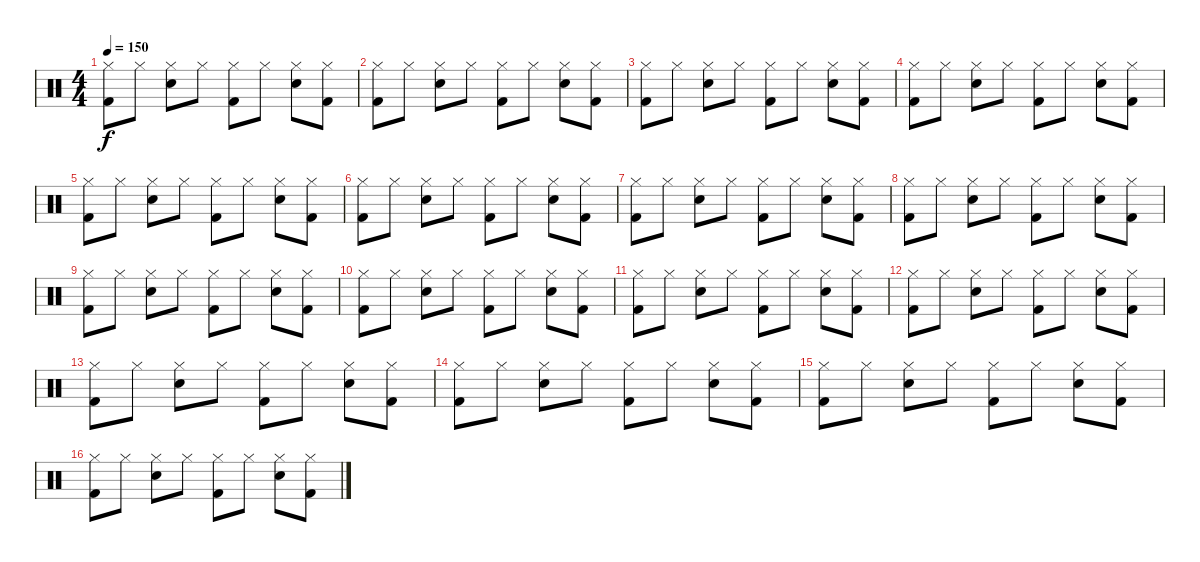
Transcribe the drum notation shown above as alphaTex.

\track "" {instrument percussion}
\staff {score}
\articulation defaults
\ts (4 4)
\tempo 150
\clef neutral
\ks c
("Hi-Hat (closed)" "Kick (hit) 2").8{dy f} "Hi-Hat (closed)".8 ("Hi-Hat (closed)" "Snare (hit) 2").8 "Hi-Hat (closed)".8 ("Hi-Hat (closed)" "Kick (hit) 2").8 "Hi-Hat (closed)".8 ("Hi-Hat (closed)" "Snare (hit) 2").8 ("Hi-Hat (closed)" "Kick (hit) 2").8 |
("Hi-Hat (closed)" "Kick (hit) 2").8 "Hi-Hat (closed)".8 ("Hi-Hat (closed)" "Snare (hit) 2").8 "Hi-Hat (closed)".8 ("Hi-Hat (closed)" "Kick (hit) 2").8 "Hi-Hat (closed)".8 ("Hi-Hat (closed)" "Snare (hit) 2").8 ("Hi-Hat (closed)" "Kick (hit) 2").8 |
("Hi-Hat (closed)" "Kick (hit) 2").8 "Hi-Hat (closed)".8 ("Hi-Hat (closed)" "Snare (hit) 2").8 "Hi-Hat (closed)".8 ("Hi-Hat (closed)" "Kick (hit) 2").8 "Hi-Hat (closed)".8 ("Hi-Hat (closed)" "Snare (hit) 2").8 ("Hi-Hat (closed)" "Kick (hit) 2").8 |
("Hi-Hat (closed)" "Kick (hit) 2").8 "Hi-Hat (closed)".8 ("Hi-Hat (closed)" "Snare (hit) 2").8 "Hi-Hat (closed)".8 ("Hi-Hat (closed)" "Kick (hit) 2").8 "Hi-Hat (closed)".8 ("Hi-Hat (closed)" "Snare (hit) 2").8 ("Hi-Hat (closed)" "Kick (hit) 2").8 |
("Hi-Hat (closed)" "Kick (hit) 2").8 "Hi-Hat (closed)".8 ("Hi-Hat (closed)" "Snare (hit) 2").8 "Hi-Hat (closed)".8 ("Hi-Hat (closed)" "Kick (hit) 2").8 "Hi-Hat (closed)".8 ("Hi-Hat (closed)" "Snare (hit) 2").8 ("Hi-Hat (closed)" "Kick (hit) 2").8 |
("Hi-Hat (closed)" "Kick (hit) 2").8 "Hi-Hat (closed)".8 ("Hi-Hat (closed)" "Snare (hit) 2").8 "Hi-Hat (closed)".8 ("Hi-Hat (closed)" "Kick (hit) 2").8 "Hi-Hat (closed)".8 ("Hi-Hat (closed)" "Snare (hit) 2").8 ("Hi-Hat (closed)" "Kick (hit) 2").8 |
("Hi-Hat (closed)" "Kick (hit) 2").8 "Hi-Hat (closed)".8 ("Hi-Hat (closed)" "Snare (hit) 2").8 "Hi-Hat (closed)".8 ("Hi-Hat (closed)" "Kick (hit) 2").8 "Hi-Hat (closed)".8 ("Hi-Hat (closed)" "Snare (hit) 2").8 ("Hi-Hat (closed)" "Kick (hit) 2").8 |
("Hi-Hat (closed)" "Kick (hit) 2").8 "Hi-Hat (closed)".8 ("Hi-Hat (closed)" "Snare (hit) 2").8 "Hi-Hat (closed)".8 ("Hi-Hat (closed)" "Kick (hit) 2").8 "Hi-Hat (closed)".8 ("Hi-Hat (closed)" "Snare (hit) 2").8 ("Hi-Hat (closed)" "Kick (hit) 2").8 |
("Hi-Hat (closed)" "Kick (hit) 2").8 "Hi-Hat (closed)".8 ("Hi-Hat (closed)" "Snare (hit) 2").8 "Hi-Hat (closed)".8 ("Hi-Hat (closed)" "Kick (hit) 2").8 "Hi-Hat (closed)".8 ("Hi-Hat (closed)" "Snare (hit) 2").8 ("Hi-Hat (closed)" "Kick (hit) 2").8 |
("Hi-Hat (closed)" "Kick (hit) 2").8 "Hi-Hat (closed)".8 ("Hi-Hat (closed)" "Snare (hit) 2").8 "Hi-Hat (closed)".8 ("Hi-Hat (closed)" "Kick (hit) 2").8 "Hi-Hat (closed)".8 ("Hi-Hat (closed)" "Snare (hit) 2").8 ("Hi-Hat (closed)" "Kick (hit) 2").8 |
("Hi-Hat (closed)" "Kick (hit) 2").8 "Hi-Hat (closed)".8 ("Hi-Hat (closed)" "Snare (hit) 2").8 "Hi-Hat (closed)".8 ("Hi-Hat (closed)" "Kick (hit) 2").8 "Hi-Hat (closed)".8 ("Hi-Hat (closed)" "Snare (hit) 2").8 ("Hi-Hat (closed)" "Kick (hit) 2").8 |
("Hi-Hat (closed)" "Kick (hit) 2").8 "Hi-Hat (closed)".8 ("Hi-Hat (closed)" "Snare (hit) 2").8 "Hi-Hat (closed)".8 ("Hi-Hat (closed)" "Kick (hit) 2").8 "Hi-Hat (closed)".8 ("Hi-Hat (closed)" "Snare (hit) 2").8 ("Hi-Hat (closed)" "Kick (hit) 2").8 |
("Hi-Hat (closed)" "Kick (hit) 2").8 "Hi-Hat (closed)".8 ("Hi-Hat (closed)" "Snare (hit) 2").8 "Hi-Hat (closed)".8 ("Hi-Hat (closed)" "Kick (hit) 2").8 "Hi-Hat (closed)".8 ("Hi-Hat (closed)" "Snare (hit) 2").8 ("Hi-Hat (closed)" "Kick (hit) 2").8 |
("Hi-Hat (closed)" "Kick (hit) 2").8 "Hi-Hat (closed)".8 ("Hi-Hat (closed)" "Snare (hit) 2").8 "Hi-Hat (closed)".8 ("Hi-Hat (closed)" "Kick (hit) 2").8 "Hi-Hat (closed)".8 ("Hi-Hat (closed)" "Snare (hit) 2").8 ("Hi-Hat (closed)" "Kick (hit) 2").8 |
("Hi-Hat (closed)" "Kick (hit) 2").8 "Hi-Hat (closed)".8 ("Hi-Hat (closed)" "Snare (hit) 2").8 "Hi-Hat (closed)".8 ("Hi-Hat (closed)" "Kick (hit) 2").8 "Hi-Hat (closed)".8 ("Hi-Hat (closed)" "Snare (hit) 2").8 ("Hi-Hat (closed)" "Kick (hit) 2").8 |
("Hi-Hat (closed)" "Kick (hit) 2").8 "Hi-Hat (closed)".8 ("Hi-Hat (closed)" "Snare (hit) 2").8 "Hi-Hat (closed)".8 ("Hi-Hat (closed)" "Kick (hit) 2").8 "Hi-Hat (closed)".8 ("Hi-Hat (closed)" "Snare (hit) 2").8 ("Hi-Hat (closed)" "Kick (hit) 2").8
